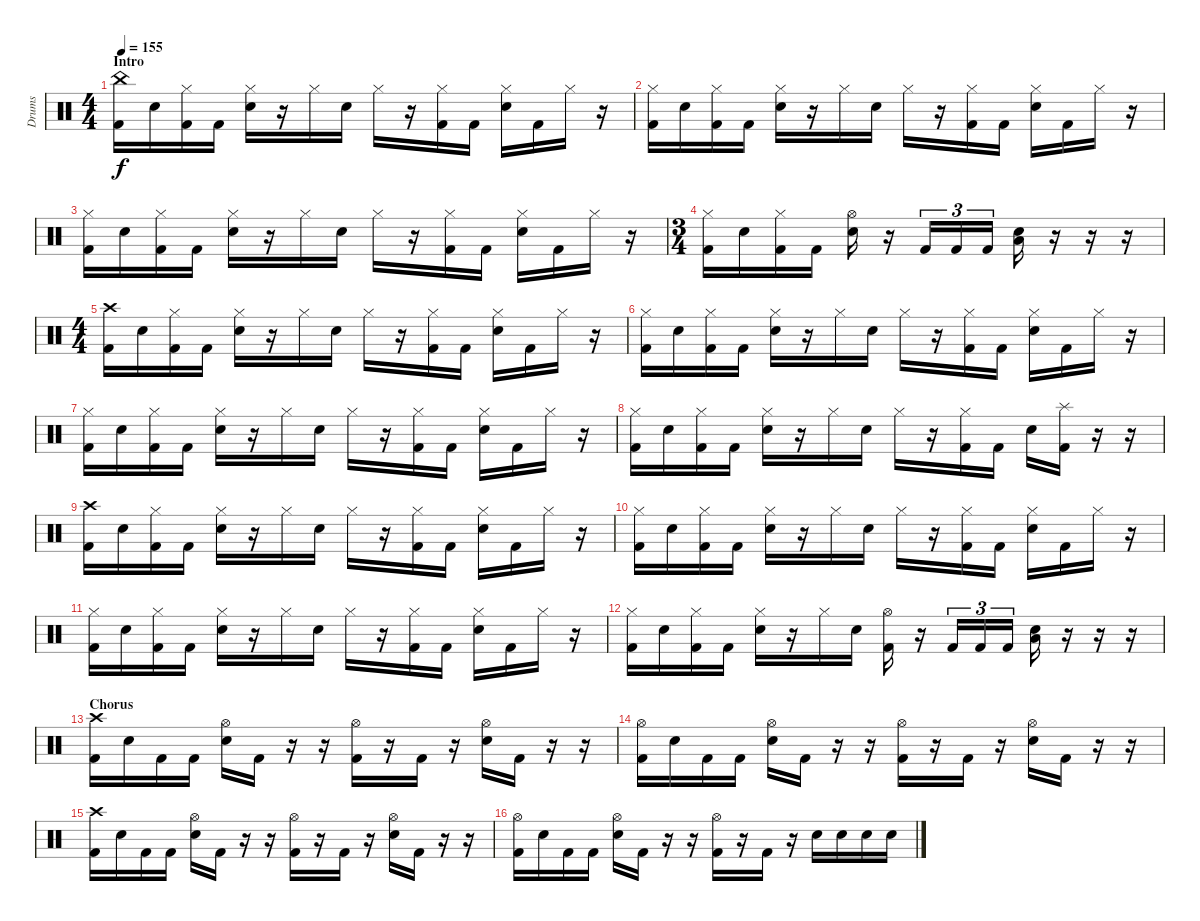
\track ("Drums" "Drums") {instrument percussion}
\staff {score}
\articulation defaults
\ts (4 4)
\section ("" "Intro")
\tempo 155
\clef neutral
\ks c
("China (hit)" "Kick (hit) 2").16{dy f} "Electric Snare (hit)".16 ("Hi-Hat (closed)" "Kick (hit) 2").16 "Kick (hit) 2".16 ("Hi-Hat (closed)" "Electric Snare (hit)").16 r.16 "Hi-Hat (closed)".16 "Electric Snare (hit)".16 "Hi-Hat (closed)".16 r.16 ("Hi-Hat (closed)" "Kick (hit) 2").16 "Kick (hit) 2".16 ("Hi-Hat (closed)" "Electric Snare (hit)").16 "Kick (hit) 2".16 "Hi-Hat (closed)".16 r.16 |
("Hi-Hat (closed)" "Kick (hit) 2").16 "Electric Snare (hit)".16 ("Hi-Hat (closed)" "Kick (hit) 2").16 "Kick (hit) 2".16 ("Hi-Hat (closed)" "Electric Snare (hit)").16 r.16 "Hi-Hat (closed)".16 "Electric Snare (hit)".16 "Hi-Hat (closed)".16 r.16 ("Hi-Hat (closed)" "Kick (hit) 2").16 "Kick (hit) 2".16 ("Hi-Hat (closed)" "Electric Snare (hit)").16 "Kick (hit) 2".16 "Hi-Hat (closed)".16 r.16 |
("Hi-Hat (closed)" "Kick (hit) 2").16 "Electric Snare (hit)".16 ("Hi-Hat (closed)" "Kick (hit) 2").16 "Kick (hit) 2".16 ("Hi-Hat (closed)" "Electric Snare (hit)").16 r.16 "Hi-Hat (closed)".16 "Electric Snare (hit)".16 "Hi-Hat (closed)".16 r.16 ("Hi-Hat (closed)" "Kick (hit) 2").16 "Kick (hit) 2".16 ("Hi-Hat (closed)" "Electric Snare (hit)").16 "Kick (hit) 2".16 "Hi-Hat (closed)".16 r.16 |
\ts (3 4)
("Hi-Hat (closed)" "Kick (hit) 2").16 "Electric Snare (hit)".16 ("Hi-Hat (closed)" "Kick (hit) 2").16 "Kick (hit) 2".16 ("Hi-Hat (open)" "Electric Snare (hit)").16 r.16 "Kick (hit) 2".16{tu (3 2)} "Kick (hit) 2".16{tu (3 2)} "Kick (hit) 2".16{tu (3 2)} ("Electric Snare (hit)" "Low Tom (hit)").16 r.16 r.16 r.16 |
\ts (4 4)
("Crash high (hit)" "Kick (hit) 2").16 "Electric Snare (hit)".16 ("Hi-Hat (closed)" "Kick (hit) 2").16 "Kick (hit) 2".16 ("Hi-Hat (closed)" "Electric Snare (hit)").16 r.16 "Hi-Hat (closed)".16 "Electric Snare (hit)".16 "Hi-Hat (closed)".16 r.16 ("Hi-Hat (closed)" "Kick (hit) 2").16 "Kick (hit) 2".16 ("Hi-Hat (closed)" "Electric Snare (hit)").16 "Kick (hit) 2".16 "Hi-Hat (closed)".16 r.16 |
("Hi-Hat (closed)" "Kick (hit) 2").16 "Electric Snare (hit)".16 ("Hi-Hat (closed)" "Kick (hit) 2").16 "Kick (hit) 2".16 ("Hi-Hat (closed)" "Electric Snare (hit)").16 r.16 "Hi-Hat (closed)".16 "Electric Snare (hit)".16 "Hi-Hat (closed)".16 r.16 ("Hi-Hat (closed)" "Kick (hit) 2").16 "Kick (hit) 2".16 ("Hi-Hat (closed)" "Electric Snare (hit)").16 "Kick (hit) 2".16 "Hi-Hat (closed)".16 r.16 |
("Hi-Hat (closed)" "Kick (hit) 2").16 "Electric Snare (hit)".16 ("Hi-Hat (closed)" "Kick (hit) 2").16 "Kick (hit) 2".16 ("Hi-Hat (closed)" "Electric Snare (hit)").16 r.16 "Hi-Hat (closed)".16 "Electric Snare (hit)".16 "Hi-Hat (closed)".16 r.16 ("Hi-Hat (closed)" "Kick (hit) 2").16 "Kick (hit) 2".16 ("Hi-Hat (closed)" "Electric Snare (hit)").16 "Kick (hit) 2".16 "Hi-Hat (closed)".16 r.16 |
("Hi-Hat (closed)" "Kick (hit) 2").16 "Electric Snare (hit)".16 ("Hi-Hat (closed)" "Kick (hit) 2").16 "Kick (hit) 2".16 ("Hi-Hat (closed)" "Electric Snare (hit)").16 r.16 "Hi-Hat (closed)".16 "Electric Snare (hit)".16 "Hi-Hat (closed)".16 r.16 ("Hi-Hat (closed)" "Kick (hit) 2").16 "Kick (hit) 2".16 "Electric Snare (hit)".16 ("Splash (hit)" "Kick (hit) 2").16 r.16 r.16 |
("Crash high (hit)" "Kick (hit) 2").16 "Electric Snare (hit)".16 ("Hi-Hat (closed)" "Kick (hit) 2").16 "Kick (hit) 2".16 ("Hi-Hat (closed)" "Electric Snare (hit)").16 r.16 "Hi-Hat (closed)".16 "Electric Snare (hit)".16 "Hi-Hat (closed)".16 r.16 ("Hi-Hat (closed)" "Kick (hit) 2").16 "Kick (hit) 2".16 ("Hi-Hat (closed)" "Electric Snare (hit)").16 "Kick (hit) 2".16 "Hi-Hat (closed)".16 r.16 |
("Hi-Hat (closed)" "Kick (hit) 2").16 "Electric Snare (hit)".16 ("Hi-Hat (closed)" "Kick (hit) 2").16 "Kick (hit) 2".16 ("Hi-Hat (closed)" "Electric Snare (hit)").16 r.16 "Hi-Hat (closed)".16 "Electric Snare (hit)".16 "Hi-Hat (closed)".16 r.16 ("Hi-Hat (closed)" "Kick (hit) 2").16 "Kick (hit) 2".16 ("Hi-Hat (closed)" "Electric Snare (hit)").16 "Kick (hit) 2".16 "Hi-Hat (closed)".16 r.16 |
("Hi-Hat (closed)" "Kick (hit) 2").16 "Electric Snare (hit)".16 ("Hi-Hat (closed)" "Kick (hit) 2").16 "Kick (hit) 2".16 ("Hi-Hat (closed)" "Electric Snare (hit)").16 r.16 "Hi-Hat (closed)".16 "Electric Snare (hit)".16 "Hi-Hat (closed)".16 r.16 ("Hi-Hat (closed)" "Kick (hit) 2").16 "Kick (hit) 2".16 ("Hi-Hat (closed)" "Electric Snare (hit)").16 "Kick (hit) 2".16 "Hi-Hat (closed)".16 r.16 |
("Hi-Hat (closed)" "Kick (hit) 2").16 "Electric Snare (hit)".16 ("Hi-Hat (closed)" "Kick (hit) 2").16 "Kick (hit) 2".16 ("Hi-Hat (closed)" "Electric Snare (hit)").16 r.16 "Hi-Hat (closed)".16 "Electric Snare (hit)".16 ("Hi-Hat (open)" "Kick (hit) 2").16 r.16 "Kick (hit) 2".16{tu (3 2)} "Kick (hit) 2".16{tu (3 2)} "Kick (hit) 2".16{tu (3 2)} ("Electric Snare (hit)" "Low Tom (hit)").16 r.16 r.16 r.16 |
\section ("" "Chorus")
("Crash high (hit)" "Kick (hit) 2").16 "Electric Snare (hit)".16 "Kick (hit) 2".16 "Kick (hit) 2".16 ("Hi-Hat (open)" "Electric Snare (hit)").16 "Kick (hit) 2".16 r.16 r.16 ("Hi-Hat (open)" "Kick (hit) 2").16 r.16 "Kick (hit) 2".16 r.16 ("Hi-Hat (open)" "Electric Snare (hit)").16 "Kick (hit) 2".16 r.16 r.16 |
("Hi-Hat (open)" "Kick (hit) 2").16 "Electric Snare (hit)".16 "Kick (hit) 2".16 "Kick (hit) 2".16 ("Hi-Hat (open)" "Electric Snare (hit)").16 "Kick (hit) 2".16 r.16 r.16 ("Hi-Hat (open)" "Kick (hit) 2").16 r.16 "Kick (hit) 2".16 r.16 ("Hi-Hat (open)" "Electric Snare (hit)").16 "Kick (hit) 2".16 r.16 r.16 |
("Crash high (hit)" "Kick (hit) 2").16 "Electric Snare (hit)".16 "Kick (hit) 2".16 "Kick (hit) 2".16 ("Hi-Hat (open)" "Electric Snare (hit)").16 "Kick (hit) 2".16 r.16 r.16 ("Hi-Hat (open)" "Kick (hit) 2").16 r.16 "Kick (hit) 2".16 r.16 ("Hi-Hat (open)" "Electric Snare (hit)").16 "Kick (hit) 2".16 r.16 r.16 |
("Hi-Hat (open)" "Kick (hit) 2").16 "Electric Snare (hit)".16 "Kick (hit) 2".16 "Kick (hit) 2".16 ("Hi-Hat (open)" "Electric Snare (hit)").16 "Kick (hit) 2".16 r.16 r.16 ("Hi-Hat (open)" "Kick (hit) 2").16 r.16 "Kick (hit) 2".16 r.16 "Electric Snare (hit)".16 "Electric Snare (hit)".16 "Electric Snare (hit)".16 "Electric Snare (hit)".16
